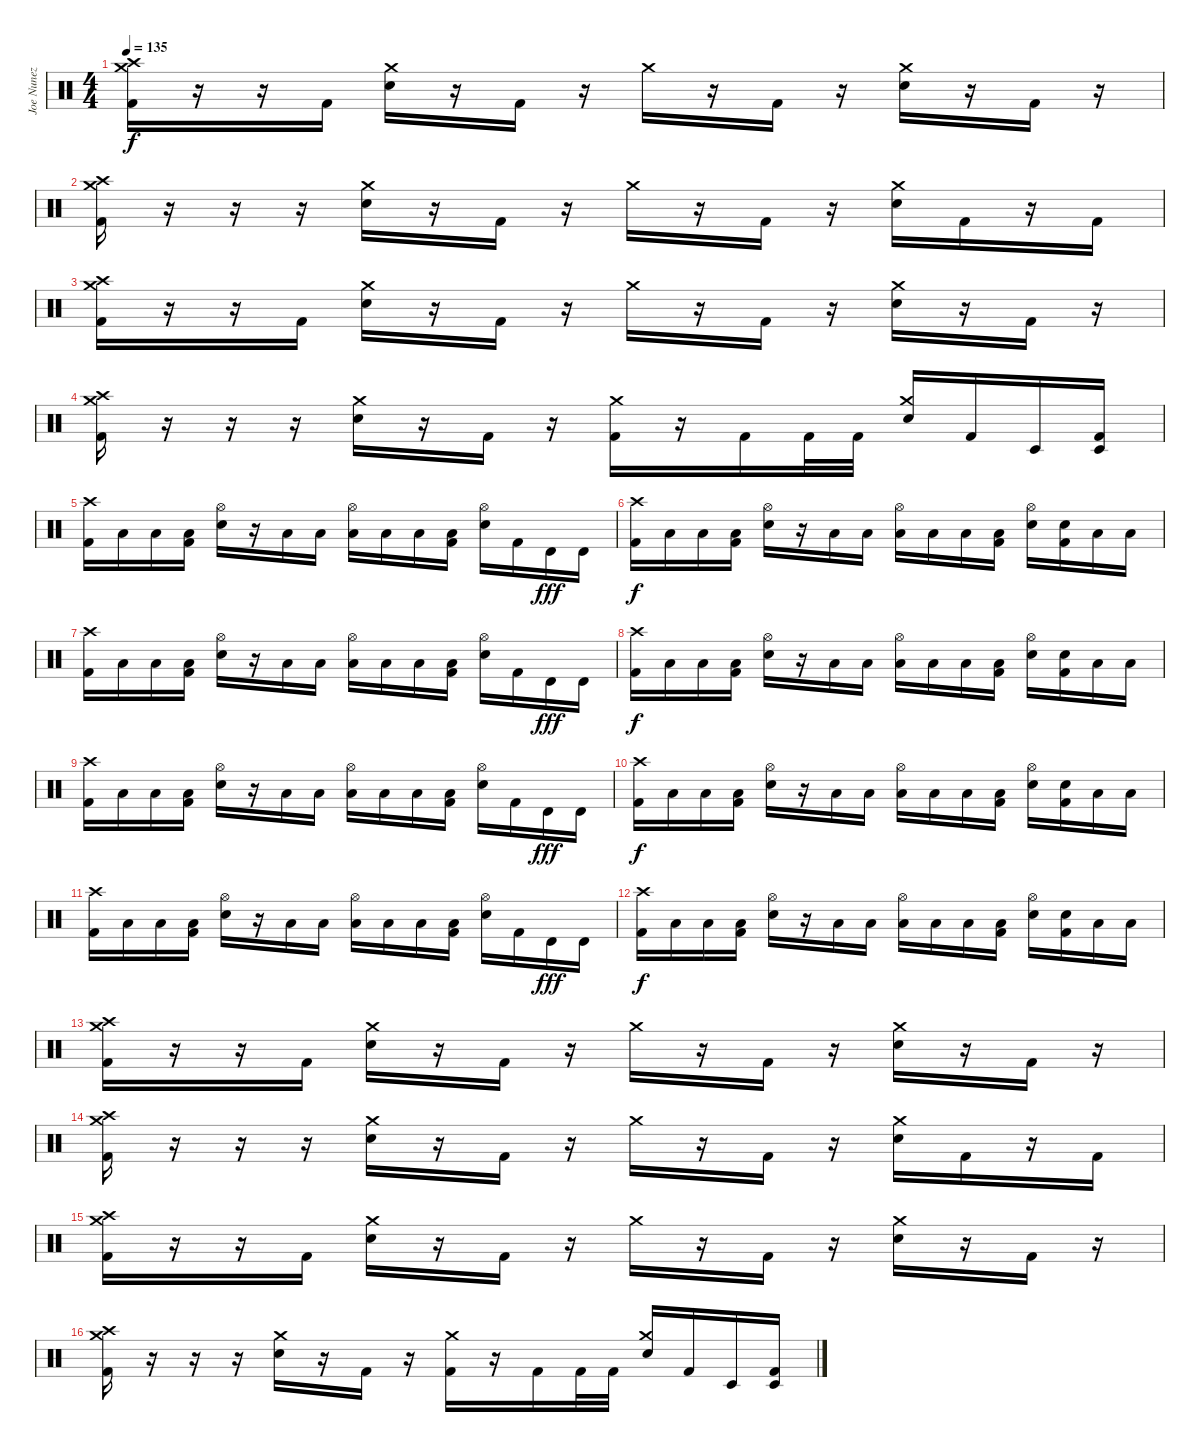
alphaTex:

\track ("Joe Nunez" "Joe Nunez") {instrument percussion}
\staff {score}
\articulation defaults
\ts (4 4)
\tempo 135
\clef neutral
\ks c
("Crash high (hit)" "Crash medium (hit)" "Kick (hit) 2").16{dy f} r.16 r.16 "Kick (hit) 2".16 ("Crash medium (hit)" "Electric Snare (hit)").16 r.16 "Kick (hit) 2".16 r.16 "Crash medium (hit)".16 r.16 "Kick (hit) 2".16 r.16 ("Crash medium (hit)" "Electric Snare (hit)").16 r.16 "Kick (hit) 2".16 r.16 |
("Crash high (hit)" "Crash medium (hit)" "Kick (hit) 2").16 r.16 r.16 r.16 ("Crash medium (hit)" "Electric Snare (hit)").16 r.16 "Kick (hit) 2".16 r.16 "Crash medium (hit)".16 r.16 "Kick (hit) 2".16 r.16 ("Crash medium (hit)" "Electric Snare (hit)").16 "Kick (hit) 2".16 r.16 "Kick (hit) 2".16 |
("Crash high (hit)" "Crash medium (hit)" "Kick (hit) 2").16 r.16 r.16 "Kick (hit) 2".16 ("Crash medium (hit)" "Electric Snare (hit)").16 r.16 "Kick (hit) 2".16 r.16 "Crash medium (hit)".16 r.16 "Kick (hit) 2".16 r.16 ("Crash medium (hit)" "Electric Snare (hit)").16 r.16 "Kick (hit) 2".16 r.16 |
("Crash high (hit)" "Crash medium (hit)" "Kick (hit) 2").16 r.16 r.16 r.16 ("Crash medium (hit)" "Electric Snare (hit)").16 r.16 "Kick (hit) 2".16 r.16 ("Crash medium (hit)" "Kick (hit) 2").16 r.16 "Kick (hit) 2".16 "Kick (hit) 2".32 "Kick (hit) 2".32 ("Crash medium (hit)" "Electric Snare (hit)").16 "Kick (hit) 2".16 "Timbale low (hit)".16 ("Timbale low (hit)" "Kick (hit) 2").16 |
("Crash high (hit)" "Kick (hit) 2").16 "Low Tom (hit)".16 "Low Tom (hit)".16 ("Low Tom (hit)" "Kick (hit) 2").16 ("Hi-Hat (open)" "Electric Snare (hit)").16 r.16 "Low Tom (hit)".16 "Low Tom (hit)".16 ("Hi-Hat (open)" "Low Tom (hit)").16 "Low Tom (hit)".16 "Low Tom (hit)".16 ("Low Tom (hit)" "Kick (hit) 2").16 ("Hi-Hat (open)" "Electric Snare (hit)").16 "Kick (hit) 2".16 "Timbale high (hit)".16{dy fff} "Timbale high (hit)".16 |
("Crash high (hit)" "Kick (hit) 2").16{dy f} "Low Tom (hit)".16 "Low Tom (hit)".16 ("Low Tom (hit)" "Kick (hit) 2").16 ("Hi-Hat (open)" "Electric Snare (hit)").16 r.16 "Low Tom (hit)".16 "Low Tom (hit)".16 ("Hi-Hat (open)" "Low Tom (hit)").16 "Low Tom (hit)".16 "Low Tom (hit)".16 ("Low Tom (hit)" "Kick (hit) 2").16 ("Hi-Hat (open)" "Electric Snare (hit)").16 ("Electric Snare (hit)" "Kick (hit) 2").16 "Low Tom (hit)".16 "Low Tom (hit)".16 |
("Crash high (hit)" "Kick (hit) 2").16 "Low Tom (hit)".16 "Low Tom (hit)".16 ("Low Tom (hit)" "Kick (hit) 2").16 ("Hi-Hat (open)" "Electric Snare (hit)").16 r.16 "Low Tom (hit)".16 "Low Tom (hit)".16 ("Hi-Hat (open)" "Low Tom (hit)").16 "Low Tom (hit)".16 "Low Tom (hit)".16 ("Low Tom (hit)" "Kick (hit) 2").16 ("Hi-Hat (open)" "Electric Snare (hit)").16 "Kick (hit) 2".16 "Timbale high (hit)".16{dy fff} "Timbale high (hit)".16 |
("Crash high (hit)" "Kick (hit) 2").16{dy f} "Low Tom (hit)".16 "Low Tom (hit)".16 ("Low Tom (hit)" "Kick (hit) 2").16 ("Hi-Hat (open)" "Electric Snare (hit)").16 r.16 "Low Tom (hit)".16 "Low Tom (hit)".16 ("Hi-Hat (open)" "Low Tom (hit)").16 "Low Tom (hit)".16 "Low Tom (hit)".16 ("Low Tom (hit)" "Kick (hit) 2").16 ("Hi-Hat (open)" "Electric Snare (hit)").16 ("Electric Snare (hit)" "Kick (hit) 2").16 "Low Tom (hit)".16 "Low Tom (hit)".16 |
("Crash high (hit)" "Kick (hit) 2").16 "Low Tom (hit)".16 "Low Tom (hit)".16 ("Low Tom (hit)" "Kick (hit) 2").16 ("Hi-Hat (open)" "Electric Snare (hit)").16 r.16 "Low Tom (hit)".16 "Low Tom (hit)".16 ("Hi-Hat (open)" "Low Tom (hit)").16 "Low Tom (hit)".16 "Low Tom (hit)".16 ("Low Tom (hit)" "Kick (hit) 2").16 ("Hi-Hat (open)" "Electric Snare (hit)").16 "Kick (hit) 2".16 "Timbale high (hit)".16{dy fff} "Timbale high (hit)".16 |
("Crash high (hit)" "Kick (hit) 2").16{dy f} "Low Tom (hit)".16 "Low Tom (hit)".16 ("Low Tom (hit)" "Kick (hit) 2").16 ("Hi-Hat (open)" "Electric Snare (hit)").16 r.16 "Low Tom (hit)".16 "Low Tom (hit)".16 ("Hi-Hat (open)" "Low Tom (hit)").16 "Low Tom (hit)".16 "Low Tom (hit)".16 ("Low Tom (hit)" "Kick (hit) 2").16 ("Hi-Hat (open)" "Electric Snare (hit)").16 ("Electric Snare (hit)" "Kick (hit) 2").16 "Low Tom (hit)".16 "Low Tom (hit)".16 |
("Crash high (hit)" "Kick (hit) 2").16 "Low Tom (hit)".16 "Low Tom (hit)".16 ("Low Tom (hit)" "Kick (hit) 2").16 ("Hi-Hat (open)" "Electric Snare (hit)").16 r.16 "Low Tom (hit)".16 "Low Tom (hit)".16 ("Hi-Hat (open)" "Low Tom (hit)").16 "Low Tom (hit)".16 "Low Tom (hit)".16 ("Low Tom (hit)" "Kick (hit) 2").16 ("Hi-Hat (open)" "Electric Snare (hit)").16 "Kick (hit) 2".16 "Timbale high (hit)".16{dy fff} "Timbale high (hit)".16 |
("Crash high (hit)" "Kick (hit) 2").16{dy f} "Low Tom (hit)".16 "Low Tom (hit)".16 ("Low Tom (hit)" "Kick (hit) 2").16 ("Hi-Hat (open)" "Electric Snare (hit)").16 r.16 "Low Tom (hit)".16 "Low Tom (hit)".16 ("Hi-Hat (open)" "Low Tom (hit)").16 "Low Tom (hit)".16 "Low Tom (hit)".16 ("Low Tom (hit)" "Kick (hit) 2").16 ("Hi-Hat (open)" "Electric Snare (hit)").16 ("Electric Snare (hit)" "Kick (hit) 2").16 "Low Tom (hit)".16 "Low Tom (hit)".16 |
("Crash high (hit)" "Crash medium (hit)" "Kick (hit) 2").16 r.16 r.16 "Kick (hit) 2".16 ("Crash medium (hit)" "Electric Snare (hit)").16 r.16 "Kick (hit) 2".16 r.16 "Crash medium (hit)".16 r.16 "Kick (hit) 2".16 r.16 ("Crash medium (hit)" "Electric Snare (hit)").16 r.16 "Kick (hit) 2".16 r.16 |
("Crash high (hit)" "Crash medium (hit)" "Kick (hit) 2").16 r.16 r.16 r.16 ("Crash medium (hit)" "Electric Snare (hit)").16 r.16 "Kick (hit) 2".16 r.16 "Crash medium (hit)".16 r.16 "Kick (hit) 2".16 r.16 ("Crash medium (hit)" "Electric Snare (hit)").16 "Kick (hit) 2".16 r.16 "Kick (hit) 2".16 |
("Crash high (hit)" "Crash medium (hit)" "Kick (hit) 2").16 r.16 r.16 "Kick (hit) 2".16 ("Crash medium (hit)" "Electric Snare (hit)").16 r.16 "Kick (hit) 2".16 r.16 "Crash medium (hit)".16 r.16 "Kick (hit) 2".16 r.16 ("Crash medium (hit)" "Electric Snare (hit)").16 r.16 "Kick (hit) 2".16 r.16 |
("Crash high (hit)" "Crash medium (hit)" "Kick (hit) 2").16 r.16 r.16 r.16 ("Crash medium (hit)" "Electric Snare (hit)").16 r.16 "Kick (hit) 2".16 r.16 ("Crash medium (hit)" "Kick (hit) 2").16 r.16 "Kick (hit) 2".16 "Kick (hit) 2".32 "Kick (hit) 2".32 ("Crash medium (hit)" "Electric Snare (hit)").16 "Kick (hit) 2".16 "Timbale low (hit)".16 ("Timbale low (hit)" "Kick (hit) 2").16
